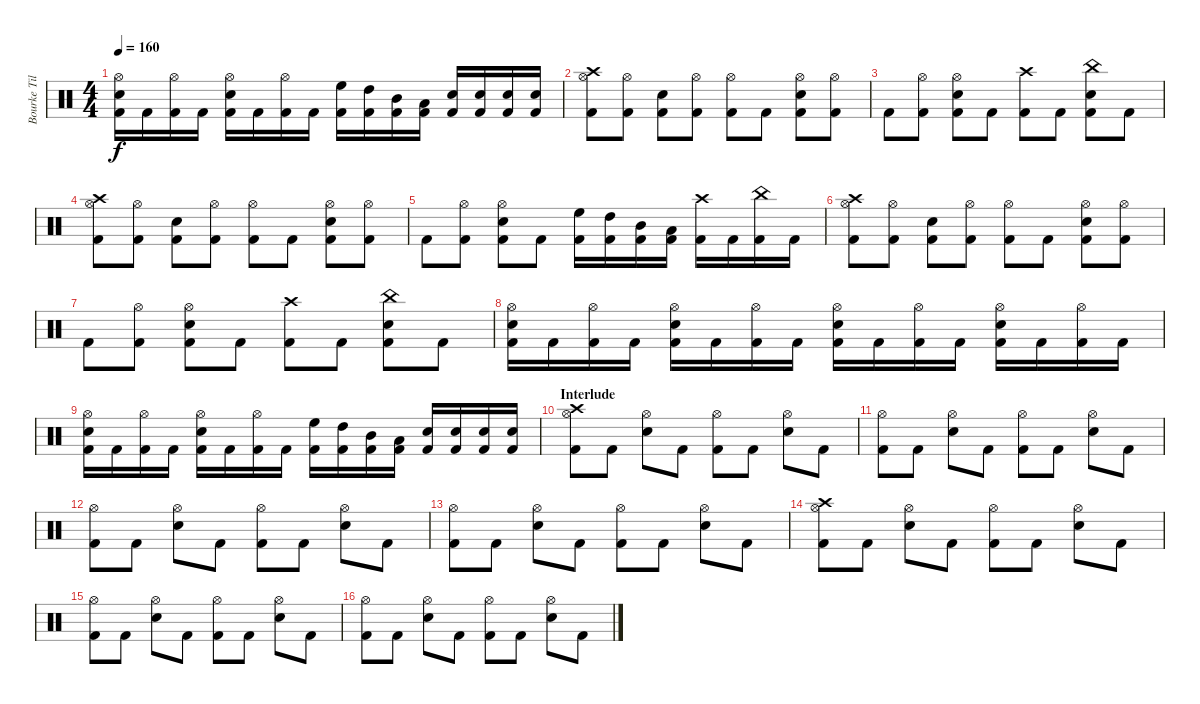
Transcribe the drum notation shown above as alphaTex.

\track ("Bourke Tillman" "Bourke Til") {instrument percussion}
\staff {score}
\articulation defaults
\ts (4 4)
\tempo 160
\clef neutral
\ks c
("Hi-Hat (open)" "Electric Snare (hit)" "Kick (hit) 2").16{dy f} "Kick (hit) 2".16 ("Hi-Hat (open)" "Kick (hit) 2").16 "Kick (hit) 2".16 ("Hi-Hat (open)" "Electric Snare (hit)" "Kick (hit) 2").16 "Kick (hit) 2".16 ("Hi-Hat (open)" "Kick (hit) 2").16 "Kick (hit) 2".16 ("High Floor Tom (hit)" "Kick (hit) 2").16 ("High Tom (hit)" "Kick (hit) 2").16 ("Mid Tom (hit)" "Kick (hit) 2").16 ("Low Tom (hit)" "Kick (hit) 2").16 ("Electric Snare (hit)" "Kick (hit) 2").16 ("Electric Snare (hit)" "Kick (hit) 2").16 ("Electric Snare (hit)" "Kick (hit) 2").16 ("Electric Snare (hit)" "Kick (hit) 2").16 |
("Crash high (hit)" "Hi-Hat (open)" "Kick (hit) 2").8 ("Hi-Hat (open)" "Kick (hit) 2").8 ("Electric Snare (hit)" "Kick (hit) 2").8 ("Hi-Hat (open)" "Kick (hit) 2").8 ("Hi-Hat (open)" "Kick (hit) 2").8 "Kick (hit) 2".8 ("Hi-Hat (open)" "Electric Snare (hit)" "Kick (hit) 2").8 ("Hi-Hat (open)" "Kick (hit) 2").8 |
"Kick (hit) 2".8 ("Hi-Hat (open)" "Kick (hit) 2").8 ("Hi-Hat (open)" "Electric Snare (hit)" "Kick (hit) 2").8 "Kick (hit) 2".8 ("Crash high (hit)" "Kick (hit) 2").8 "Kick (hit) 2".8 ("China (hit)" "Electric Snare (hit)" "Kick (hit) 2").8 "Kick (hit) 2".8 |
("Crash high (hit)" "Hi-Hat (open)" "Kick (hit) 2").8 ("Hi-Hat (open)" "Kick (hit) 2").8 ("Electric Snare (hit)" "Kick (hit) 2").8 ("Hi-Hat (open)" "Kick (hit) 2").8 ("Hi-Hat (open)" "Kick (hit) 2").8 "Kick (hit) 2".8 ("Hi-Hat (open)" "Electric Snare (hit)" "Kick (hit) 2").8 ("Hi-Hat (open)" "Kick (hit) 2").8 |
"Kick (hit) 2".8 ("Hi-Hat (open)" "Kick (hit) 2").8 ("Hi-Hat (open)" "Electric Snare (hit)" "Kick (hit) 2").8 "Kick (hit) 2".8 ("High Floor Tom (hit)" "Kick (hit) 2").16 ("High Tom (hit)" "Kick (hit) 2").16 ("Mid Tom (hit)" "Kick (hit) 2").16 ("Low Tom (hit)" "Kick (hit) 2").16 ("Crash high (hit)" "Kick (hit) 2").16 "Kick (hit) 2".16 ("China (hit)" "Kick (hit) 2").16 "Kick (hit) 2".16 |
("Crash high (hit)" "Hi-Hat (open)" "Kick (hit) 2").8 ("Hi-Hat (open)" "Kick (hit) 2").8 ("Electric Snare (hit)" "Kick (hit) 2").8 ("Hi-Hat (open)" "Kick (hit) 2").8 ("Hi-Hat (open)" "Kick (hit) 2").8 "Kick (hit) 2".8 ("Hi-Hat (open)" "Electric Snare (hit)" "Kick (hit) 2").8 ("Hi-Hat (open)" "Kick (hit) 2").8 |
"Kick (hit) 2".8 ("Hi-Hat (open)" "Kick (hit) 2").8 ("Hi-Hat (open)" "Electric Snare (hit)" "Kick (hit) 2").8 "Kick (hit) 2".8 ("Crash high (hit)" "Kick (hit) 2").8 "Kick (hit) 2".8 ("China (hit)" "Electric Snare (hit)" "Kick (hit) 2").8 "Kick (hit) 2".8 |
("Hi-Hat (open)" "Electric Snare (hit)" "Kick (hit) 2").16 "Kick (hit) 2".16 ("Hi-Hat (open)" "Kick (hit) 2").16 "Kick (hit) 2".16 ("Hi-Hat (open)" "Electric Snare (hit)" "Kick (hit) 2").16 "Kick (hit) 2".16 ("Hi-Hat (open)" "Kick (hit) 2").16 "Kick (hit) 2".16 ("Hi-Hat (open)" "Electric Snare (hit)" "Kick (hit) 2").16 "Kick (hit) 2".16 ("Hi-Hat (open)" "Kick (hit) 2").16 "Kick (hit) 2".16 ("Hi-Hat (open)" "Electric Snare (hit)" "Kick (hit) 2").16 "Kick (hit) 2".16 ("Hi-Hat (open)" "Kick (hit) 2").16 "Kick (hit) 2".16 |
("Hi-Hat (open)" "Electric Snare (hit)" "Kick (hit) 2").16 "Kick (hit) 2".16 ("Hi-Hat (open)" "Kick (hit) 2").16 "Kick (hit) 2".16 ("Hi-Hat (open)" "Electric Snare (hit)" "Kick (hit) 2").16 "Kick (hit) 2".16 ("Hi-Hat (open)" "Kick (hit) 2").16 "Kick (hit) 2".16 ("High Floor Tom (hit)" "Kick (hit) 2").16 ("High Tom (hit)" "Kick (hit) 2").16 ("Mid Tom (hit)" "Kick (hit) 2").16 ("Low Tom (hit)" "Kick (hit) 2").16 ("Electric Snare (hit)" "Kick (hit) 2").16 ("Electric Snare (hit)" "Kick (hit) 2").16 ("Electric Snare (hit)" "Kick (hit) 2").16 ("Electric Snare (hit)" "Kick (hit) 2").16 |
\section ("" "Interlude")
("Crash high (hit)" "Hi-Hat (open)" "Kick (hit) 2").8 "Kick (hit) 2".8 ("Hi-Hat (open)" "Electric Snare (hit)").8 "Kick (hit) 2".8 ("Hi-Hat (open)" "Kick (hit) 2").8 "Kick (hit) 2".8 ("Hi-Hat (open)" "Electric Snare (hit)").8 "Kick (hit) 2".8 |
("Hi-Hat (open)" "Kick (hit) 2").8 "Kick (hit) 2".8 ("Hi-Hat (open)" "Electric Snare (hit)").8 "Kick (hit) 2".8 ("Hi-Hat (open)" "Kick (hit) 2").8 "Kick (hit) 2".8 ("Hi-Hat (open)" "Electric Snare (hit)").8 "Kick (hit) 2".8 |
("Hi-Hat (open)" "Kick (hit) 2").8 "Kick (hit) 2".8 ("Hi-Hat (open)" "Electric Snare (hit)").8 "Kick (hit) 2".8 ("Hi-Hat (open)" "Kick (hit) 2").8 "Kick (hit) 2".8 ("Hi-Hat (open)" "Electric Snare (hit)").8 "Kick (hit) 2".8 |
("Hi-Hat (open)" "Kick (hit) 2").8 "Kick (hit) 2".8 ("Hi-Hat (open)" "Electric Snare (hit)").8 "Kick (hit) 2".8 ("Hi-Hat (open)" "Kick (hit) 2").8 "Kick (hit) 2".8 ("Hi-Hat (open)" "Electric Snare (hit)").8 "Kick (hit) 2".8 |
("Crash high (hit)" "Hi-Hat (open)" "Kick (hit) 2").8 "Kick (hit) 2".8 ("Hi-Hat (open)" "Electric Snare (hit)").8 "Kick (hit) 2".8 ("Hi-Hat (open)" "Kick (hit) 2").8 "Kick (hit) 2".8 ("Hi-Hat (open)" "Electric Snare (hit)").8 "Kick (hit) 2".8 |
("Hi-Hat (open)" "Kick (hit) 2").8 "Kick (hit) 2".8 ("Hi-Hat (open)" "Electric Snare (hit)").8 "Kick (hit) 2".8 ("Hi-Hat (open)" "Kick (hit) 2").8 "Kick (hit) 2".8 ("Hi-Hat (open)" "Electric Snare (hit)").8 "Kick (hit) 2".8 |
("Hi-Hat (open)" "Kick (hit) 2").8 "Kick (hit) 2".8 ("Hi-Hat (open)" "Electric Snare (hit)").8 "Kick (hit) 2".8 ("Hi-Hat (open)" "Kick (hit) 2").8 "Kick (hit) 2".8 ("Hi-Hat (open)" "Electric Snare (hit)").8 "Kick (hit) 2".8
